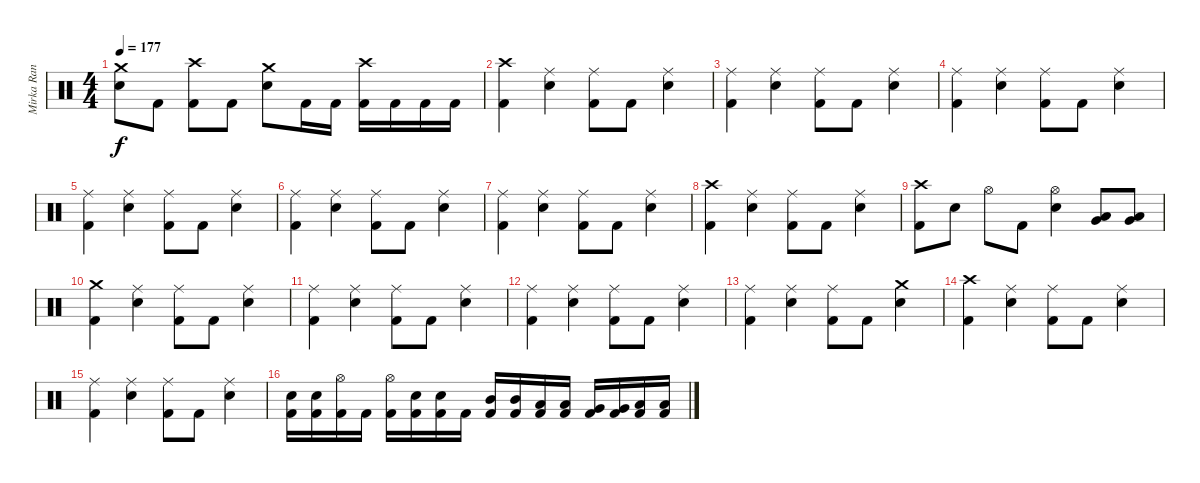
\track (" Mirka Rantanen" " Mirka Ran") {instrument percussion}
\staff {score}
\articulation defaults
\ts (4 4)
\tempo 177
\clef neutral
\ks c
("Crash medium (hit)" "Electric Snare (hit)").8{dy f} "Kick (hit) 2".8 ("Crash high (hit)" "Kick (hit) 2").8 "Kick (hit) 2".8 ("Crash medium (hit)" "Electric Snare (hit)").8 "Kick (hit) 2".16 "Kick (hit) 2".16 ("Crash high (hit)" "Kick (hit) 2").16 "Kick (hit) 2".16 "Kick (hit) 2".16 "Kick (hit) 2".16 |
("Crash high (hit)" "Kick (hit) 2").4 ("Ride (middle)" "Electric Snare (hit)").4 ("Ride (middle)" "Kick (hit) 2").8 "Kick (hit) 2".8 ("Ride (middle)" "Electric Snare (hit)").4 |
("Ride (middle)" "Kick (hit) 2").4 ("Ride (middle)" "Electric Snare (hit)").4 ("Ride (middle)" "Kick (hit) 2").8 "Kick (hit) 2".8 ("Ride (middle)" "Electric Snare (hit)").4 |
("Ride (middle)" "Kick (hit) 2").4 ("Ride (middle)" "Electric Snare (hit)").4 ("Ride (middle)" "Kick (hit) 2").8 "Kick (hit) 2".8 ("Ride (middle)" "Electric Snare (hit)").4 |
("Ride (middle)" "Kick (hit) 2").4 ("Ride (middle)" "Electric Snare (hit)").4 ("Ride (middle)" "Kick (hit) 2").8 "Kick (hit) 2".8 ("Ride (middle)" "Electric Snare (hit)").4 |
("Ride (middle)" "Kick (hit) 2").4 ("Ride (middle)" "Electric Snare (hit)").4 ("Ride (middle)" "Kick (hit) 2").8 "Kick (hit) 2".8 ("Ride (middle)" "Electric Snare (hit)").4 |
("Ride (middle)" "Kick (hit) 2").4 ("Ride (middle)" "Electric Snare (hit)").4 ("Ride (middle)" "Kick (hit) 2").8 "Kick (hit) 2".8 ("Ride (middle)" "Electric Snare (hit)").4 |
("Crash high (hit)" "Kick (hit) 2").4 ("Ride (middle)" "Electric Snare (hit)").4 ("Ride (middle)" "Kick (hit) 2").8 "Kick (hit) 2".8 ("Ride (middle)" "Electric Snare (hit)").4 |
("Crash high (hit)" "Kick (hit) 2").8 "Electric Snare (hit)".8 "Hi-Hat (open)".8 "Kick (hit) 2".8 ("Hi-Hat (open)" "Electric Snare (hit)").4 ("Very Low Tom (hit)" "Low Floor Tom (hit)").8 ("Very Low Tom (hit)" "Low Floor Tom (hit)").8 |
("Crash medium (hit)" "Kick (hit) 2").4 ("Ride (middle)" "Electric Snare (hit)").4 ("Ride (middle)" "Kick (hit) 2").8 "Kick (hit) 2".8 ("Ride (middle)" "Electric Snare (hit)").4 |
("Ride (middle)" "Kick (hit) 2").4 ("Ride (middle)" "Electric Snare (hit)").4 ("Ride (middle)" "Kick (hit) 2").8 "Kick (hit) 2".8 ("Ride (middle)" "Electric Snare (hit)").4 |
("Ride (middle)" "Kick (hit) 2").4 ("Ride (middle)" "Electric Snare (hit)").4 ("Ride (middle)" "Kick (hit) 2").8 "Kick (hit) 2".8 ("Ride (middle)" "Electric Snare (hit)").4 |
("Ride (middle)" "Kick (hit) 2").4 ("Ride (middle)" "Electric Snare (hit)").4 ("Ride (middle)" "Kick (hit) 2").8 "Kick (hit) 2".8 ("Crash medium (hit)" "Electric Snare (hit)").4 |
("Crash high (hit)" "Kick (hit) 2").4 ("Ride (middle)" "Electric Snare (hit)").4 ("Ride (middle)" "Kick (hit) 2").8 "Kick (hit) 2".8 ("Ride (middle)" "Electric Snare (hit)").4 |
("Ride (middle)" "Kick (hit) 2").4 ("Ride (middle)" "Electric Snare (hit)").4 ("Ride (middle)" "Kick (hit) 2").8 "Kick (hit) 2".8 ("Ride (middle)" "Electric Snare (hit)").4 |
("Electric Snare (hit)" "Kick (hit) 2").16 ("Electric Snare (hit)" "Kick (hit) 2").16 ("Hi-Hat (open)" "Kick (hit) 2").16 "Kick (hit) 2".16 ("Hi-Hat (open)" "Kick (hit) 2").16 ("Electric Snare (hit)" "Kick (hit) 2").16 ("Electric Snare (hit)" "Kick (hit) 2").16 "Kick (hit) 2".16 ("Mid Tom (hit)" "Kick (hit) 2").16 ("Mid Tom (hit)" "Kick (hit) 2").16 ("Low Tom (hit)" "Kick (hit) 2").16 ("Low Tom (hit)" "Kick (hit) 2").16 ("Very Low Tom (hit)" "Kick (hit) 2").16 ("Very Low Tom (hit)" "Kick (hit) 2").16 ("Low Floor Tom (hit)" "Kick (hit) 2").16 ("Low Floor Tom (hit)" "Kick (hit) 2").16
